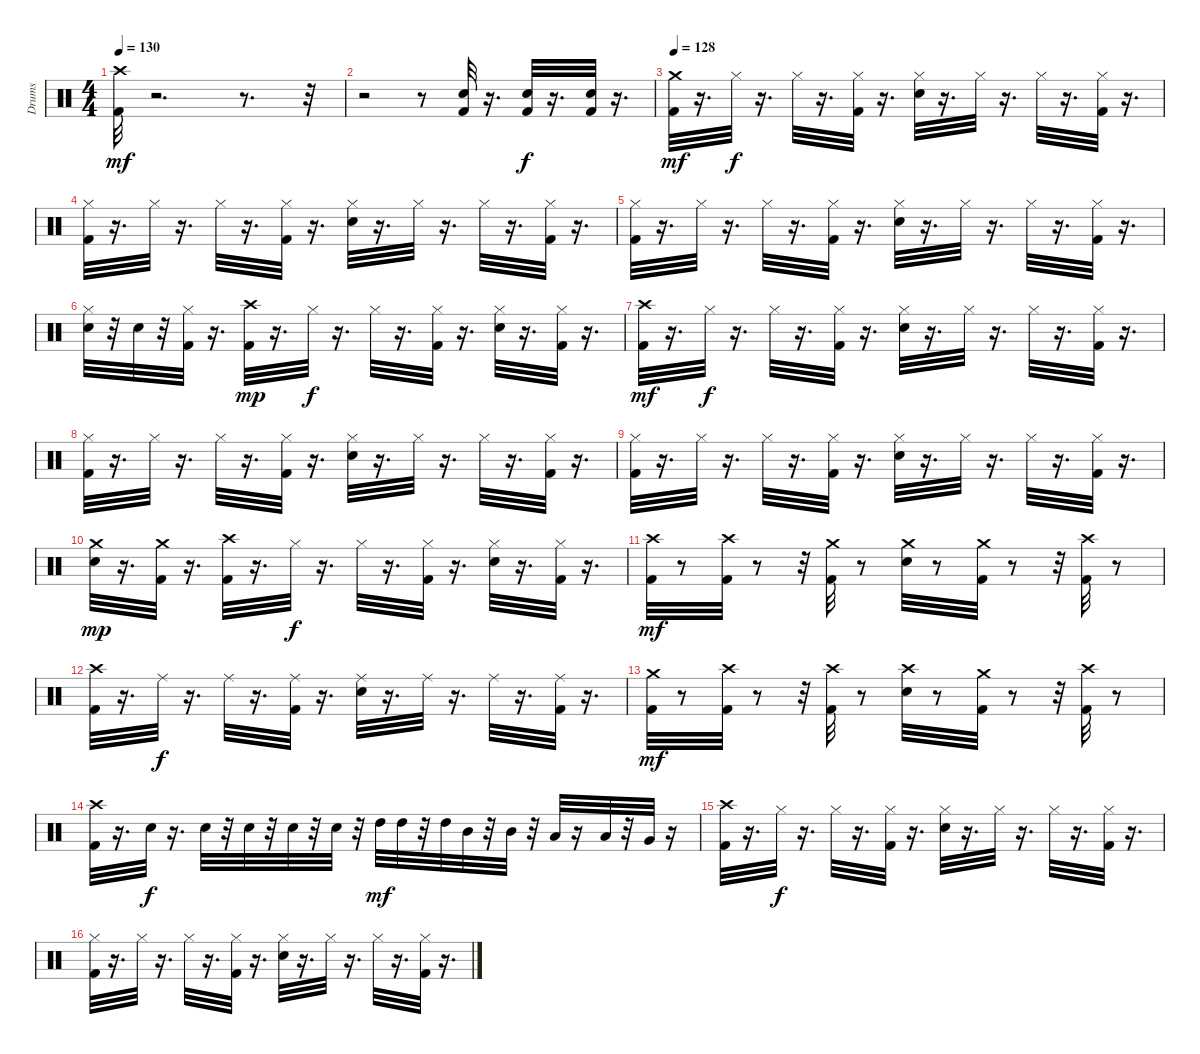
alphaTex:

\track ("Drums" "Drums") {instrument percussion}
\staff {score}
\articulation defaults
\ts (4 4)
\tempo 130
\clef neutral
\ks c
("Kick (hit) 2" "Crash high (hit)").32{dy mf} r.2{d} r.8{d} r.32 |
r.2 r.8 ("Kick (hit) 2" "Snare (hit) 2").32 r.16{d} ("Kick (hit) 2" "Snare (hit) 2").32{dy f} r.16{d} ("Kick (hit) 2" "Snare (hit) 2").32 r.16{d} |
\tempo 128
("Kick (hit) 2" "Crash medium (hit)").32{dy mf} r.16{d} "Hi-Hat (closed)".32{dy f} r.16{d} "Hi-Hat (closed)".32 r.16{d} ("Kick (hit) 2" "Hi-Hat (closed)").32 r.16{d} ("Snare (hit) 2" "Hi-Hat (closed)").32 r.16{d} "Hi-Hat (closed)".32 r.16{d} "Hi-Hat (closed)".32 r.16{d} ("Kick (hit) 2" "Hi-Hat (closed)").32 r.16{d} |
("Kick (hit) 2" "Hi-Hat (closed)").32 r.16{d} "Hi-Hat (closed)".32 r.16{d} "Hi-Hat (closed)".32 r.16{d} ("Kick (hit) 2" "Hi-Hat (closed)").32 r.16{d} ("Snare (hit) 2" "Hi-Hat (closed)").32 r.16{d} "Hi-Hat (closed)".32 r.16{d} "Hi-Hat (closed)".32 r.16{d} ("Kick (hit) 2" "Hi-Hat (closed)").32 r.16{d} |
("Kick (hit) 2" "Hi-Hat (closed)").32 r.16{d} "Hi-Hat (closed)".32 r.16{d} "Hi-Hat (closed)".32 r.16{d} ("Kick (hit) 2" "Hi-Hat (closed)").32 r.16{d} ("Snare (hit) 2" "Hi-Hat (closed)").32 r.16{d} "Hi-Hat (closed)".32 r.16{d} "Hi-Hat (closed)".32 r.16{d} ("Kick (hit) 2" "Hi-Hat (closed)").32 r.16{d} |
("Snare (hit) 2" "Hi-Hat (closed)").32 r.32 "Snare (hit) 2".32 r.32 ("Kick (hit) 2" "Hi-Hat (closed)").32 r.16{d} ("Kick (hit) 2" "Crash high (hit)").32{dy mp} r.16{d} "Hi-Hat (closed)".32{dy f} r.16{d} "Hi-Hat (closed)".32 r.16{d} ("Kick (hit) 2" "Hi-Hat (closed)").32 r.16{d} ("Snare (hit) 2" "Hi-Hat (closed)").32 r.16{d} ("Kick (hit) 2" "Hi-Hat (closed)").32 r.16{d} |
("Kick (hit) 2" "Crash high (hit)").32{dy mf} r.16{d} "Hi-Hat (closed)".32{dy f} r.16{d} "Hi-Hat (closed)".32 r.16{d} ("Kick (hit) 2" "Hi-Hat (closed)").32 r.16{d} ("Snare (hit) 2" "Hi-Hat (closed)").32 r.16{d} "Hi-Hat (closed)".32 r.16{d} "Hi-Hat (closed)".32 r.16{d} ("Kick (hit) 2" "Hi-Hat (closed)").32 r.16{d} |
("Kick (hit) 2" "Hi-Hat (closed)").32 r.16{d} "Hi-Hat (closed)".32 r.16{d} "Hi-Hat (closed)".32 r.16{d} ("Kick (hit) 2" "Hi-Hat (closed)").32 r.16{d} ("Snare (hit) 2" "Hi-Hat (closed)").32 r.16{d} "Hi-Hat (closed)".32 r.16{d} "Hi-Hat (closed)".32 r.16{d} ("Kick (hit) 2" "Hi-Hat (closed)").32 r.16{d} |
("Kick (hit) 2" "Hi-Hat (closed)").32 r.16{d} "Hi-Hat (closed)".32 r.16{d} "Hi-Hat (closed)".32 r.16{d} ("Kick (hit) 2" "Hi-Hat (closed)").32 r.16{d} ("Snare (hit) 2" "Hi-Hat (closed)").32 r.16{d} "Hi-Hat (closed)".32 r.16{d} "Hi-Hat (closed)".32 r.16{d} ("Kick (hit) 2" "Hi-Hat (closed)").32 r.16{d} |
("Snare (hit) 2" "Crash medium (hit)").32{dy mp} r.16{d} ("Kick (hit) 2" "Crash medium (hit)").32 r.16{d} ("Kick (hit) 2" "Crash high (hit)").32 r.16{d} "Hi-Hat (closed)".32{dy f} r.16{d} "Hi-Hat (closed)".32 r.16{d} ("Kick (hit) 2" "Hi-Hat (closed)").32 r.16{d} ("Snare (hit) 2" "Hi-Hat (closed)").32 r.16{d} ("Kick (hit) 2" "Hi-Hat (closed)").32 r.16{d} |
("Kick (hit) 2" "Crash high (hit)").32{dy mf} r.8 ("Kick (hit) 2" "Crash high (hit)").32 r.8 r.32 ("Kick (hit) 2" "Crash medium (hit)").32 r.8 ("Snare (hit) 2" "Crash medium (hit)").32 r.8 ("Kick (hit) 2" "Crash medium (hit)").32 r.8 r.32 ("Kick (hit) 2" "Crash high (hit)").32 r.8 |
("Kick (hit) 2" "Crash high (hit)").32 r.16{d} "Ride (middle)".32{dy f} r.16{d} "Ride (middle)".32 r.16{d} ("Kick (hit) 2" "Ride (middle)").32 r.16{d} ("Snare (hit) 2" "Ride (middle)").32 r.16{d} "Ride (middle)".32 r.16{d} "Ride (middle)".32 r.16{d} ("Kick (hit) 2" "Ride (middle)").32 r.16{d} |
("Kick (hit) 2" "Crash medium (hit)").32{dy mf} r.8 ("Kick (hit) 2" "Crash high (hit)").32 r.8 r.32 ("Kick (hit) 2" "Crash high (hit)").32 r.8 ("Snare (hit) 2" "Crash high (hit)").32 r.8 ("Kick (hit) 2" "Crash medium (hit)").32 r.8 r.32 ("Kick (hit) 2" "Crash high (hit)").32 r.8 |
("Kick (hit) 2" "Crash high (hit)").32 r.16{d} "Snare (hit) 2".32{dy f} r.16{d} "Snare (hit) 2".32 r.32 "Snare (hit) 2".32 r.32 "Snare (hit) 2".32 r.32 "Snare (hit) 2".32 r.32 "High Tom (hit)".32{dy mf} "High Tom (hit)".32 r.32 "High Tom (hit)".32 "Mid Tom (hit)".32 r.32 "Mid Tom (hit)".32 r.32 "Low Tom (hit)".32 r.16 "Low Tom (hit)".32 r.32 "Very Low Tom (hit)".32 r.16 |
("Kick (hit) 2" "Crash high (hit)").32 r.16{d} "Hi-Hat (closed)".32{dy f} r.16{d} "Hi-Hat (closed)".32 r.16{d} ("Kick (hit) 2" "Hi-Hat (closed)").32 r.16{d} ("Snare (hit) 2" "Hi-Hat (closed)").32 r.16{d} "Hi-Hat (closed)".32 r.16{d} "Hi-Hat (closed)".32 r.16{d} ("Kick (hit) 2" "Hi-Hat (closed)").32 r.16{d} |
("Kick (hit) 2" "Hi-Hat (closed)").32 r.16{d} "Hi-Hat (closed)".32 r.16{d} "Hi-Hat (closed)".32 r.16{d} ("Kick (hit) 2" "Hi-Hat (closed)").32 r.16{d} ("Snare (hit) 2" "Hi-Hat (closed)").32 r.16{d} "Hi-Hat (closed)".32 r.16{d} "Hi-Hat (closed)".32 r.16{d} ("Kick (hit) 2" "Hi-Hat (closed)").32 r.16{d}
